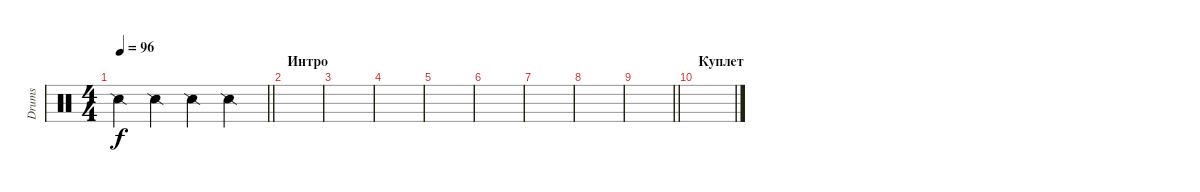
\track ("Drums" "Drums") {instrument percussion}
\staff {score}
\articulation defaults
\ts (4 4)
\tempo 96
\clef neutral
\barLineRight lightlight
\ks c "Snare (side stick) 2".4{dy f} "Snare (side stick) 2".4 "Snare (side stick) 2".4 "Snare (side stick) 2".4
|
\section ("" "Интро")
|
|
|
|
|
|
|
\barLineRight lightlight
|
\section ("" "Куплет")
